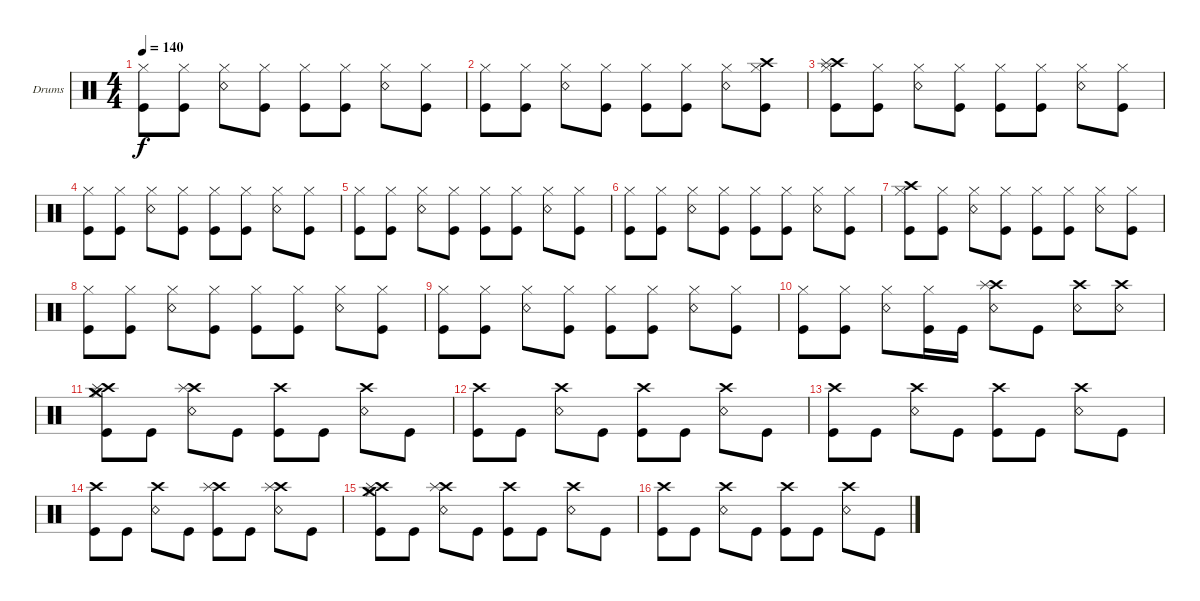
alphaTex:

\bracketExtendMode groupsimilarinstruments
\firstSystemTrackNameOrientation horizontal
\otherSystemsTrackNameOrientation horizontal
\track ("Da Kurlzz - Drums" "Drums") {instrument percussion}
\staff {score}
\articulation defaults
\ts (4 4)
\tempo 140
\clef neutral
\ks c
("Kick (hit)" "Hi-Hat (closed)").8{dy f} ("Kick (hit)" "Hi-Hat (closed)").8 ("Snare (rim shot)" "Hi-Hat (closed)").8 ("Kick (hit)" "Hi-Hat (closed)").8 ("Kick (hit)" "Hi-Hat (closed)").8 ("Kick (hit)" "Hi-Hat (closed)").8 ("Snare (rim shot)" "Hi-Hat (closed)").8 ("Kick (hit)" "Hi-Hat (closed)").8 |
("Kick (hit)" "Hi-Hat (closed)").8 ("Kick (hit)" "Hi-Hat (closed)").8 ("Snare (rim shot)" "Hi-Hat (closed)").8 ("Kick (hit)" "Hi-Hat (closed)").8 ("Kick (hit)" "Hi-Hat (closed)").8 ("Kick (hit)" "Hi-Hat (closed)").8 ("Snare (rim shot)" "Hi-Hat (closed)").8 ("Kick (hit)" "Hi-Hat (closed)" "Crash high (hit)").8 |
("Kick (hit)" "Hi-Hat (closed)" "Crash high (hit)" "Splash (hit)").8 ("Kick (hit)" "Hi-Hat (closed)").8 ("Snare (rim shot)" "Hi-Hat (closed)").8 ("Kick (hit)" "Hi-Hat (closed)").8 ("Kick (hit)" "Hi-Hat (closed)").8 ("Kick (hit)" "Hi-Hat (closed)").8 ("Snare (rim shot)" "Hi-Hat (closed)").8 ("Kick (hit)" "Hi-Hat (closed)").8 |
("Kick (hit)" "Hi-Hat (closed)").8 ("Kick (hit)" "Hi-Hat (closed)").8 ("Snare (rim shot)" "Hi-Hat (closed)").8 ("Kick (hit)" "Hi-Hat (closed)").8 ("Kick (hit)" "Hi-Hat (closed)").8 ("Kick (hit)" "Hi-Hat (closed)").8 ("Snare (rim shot)" "Hi-Hat (closed)").8 ("Kick (hit)" "Hi-Hat (closed)").8 |
("Kick (hit)" "Hi-Hat (closed)").8 ("Kick (hit)" "Hi-Hat (closed)").8 ("Snare (rim shot)" "Hi-Hat (closed)").8 ("Kick (hit)" "Hi-Hat (closed)").8 ("Kick (hit)" "Hi-Hat (closed)").8 ("Kick (hit)" "Hi-Hat (closed)").8 ("Snare (rim shot)" "Hi-Hat (closed)").8 ("Kick (hit)" "Hi-Hat (closed)").8 |
("Kick (hit)" "Hi-Hat (closed)").8 ("Kick (hit)" "Hi-Hat (closed)").8 ("Snare (rim shot)" "Hi-Hat (closed)").8 ("Kick (hit)" "Hi-Hat (closed)").8 ("Kick (hit)" "Hi-Hat (closed)").8 ("Kick (hit)" "Hi-Hat (closed)").8 ("Snare (rim shot)" "Hi-Hat (closed)").8 ("Kick (hit)" "Hi-Hat (closed)").8 |
("Kick (hit)" "Hi-Hat (closed)" "Crash high (hit)").8 ("Kick (hit)" "Hi-Hat (closed)").8 ("Snare (rim shot)" "Hi-Hat (closed)").8 ("Kick (hit)" "Hi-Hat (closed)").8 ("Kick (hit)" "Hi-Hat (closed)").8 ("Kick (hit)" "Hi-Hat (closed)").8 ("Snare (rim shot)" "Hi-Hat (closed)").8 ("Kick (hit)" "Hi-Hat (closed)").8 |
("Kick (hit)" "Hi-Hat (closed)").8 ("Kick (hit)" "Hi-Hat (closed)").8 ("Snare (rim shot)" "Hi-Hat (closed)").8 ("Kick (hit)" "Hi-Hat (closed)").8 ("Kick (hit)" "Hi-Hat (closed)").8 ("Kick (hit)" "Hi-Hat (closed)").8 ("Snare (rim shot)" "Hi-Hat (closed)").8 ("Kick (hit)" "Hi-Hat (closed)").8 |
("Kick (hit)" "Hi-Hat (closed)").8 ("Kick (hit)" "Hi-Hat (closed)").8 ("Snare (rim shot)" "Hi-Hat (closed)").8 ("Kick (hit)" "Hi-Hat (closed)").8 ("Kick (hit)" "Hi-Hat (closed)").8 ("Kick (hit)" "Hi-Hat (closed)").8 ("Snare (rim shot)" "Hi-Hat (closed)").8 ("Kick (hit)" "Hi-Hat (closed)").8 |
("Kick (hit)" "Hi-Hat (closed)").8 ("Kick (hit)" "Hi-Hat (closed)").8 ("Snare (rim shot)" "Hi-Hat (closed)").8 ("Kick (hit)" "Hi-Hat (closed)").16 "Kick (hit)".16 ("Snare (rim shot)" "Crash high (hit)" "Splash (hit)").8 "Kick (hit)".8 ("Snare (rim shot)" "Crash high (hit)").8 ("Snare (rim shot)" "Crash high (hit)").8 |
("Kick (hit)" "Crash high (hit)" "Crash medium (hit)" "Hi-Hat (closed)" "Splash (hit)").8 "Kick (hit)".8 ("Snare (rim shot)" "Crash high (hit)" "Splash (hit)").8 "Kick (hit)".8 ("Kick (hit)" "Crash high (hit)").8 "Kick (hit)".8 ("Snare (rim shot)" "Crash high (hit)").8 "Kick (hit)".8 |
("Kick (hit)" "Crash high (hit)").8 "Kick (hit)".8 ("Snare (rim shot)" "Crash high (hit)").8 "Kick (hit)".8 ("Kick (hit)" "Crash high (hit)").8 "Kick (hit)".8 ("Snare (rim shot)" "Crash high (hit)").8 "Kick (hit)".8 |
("Kick (hit)" "Crash high (hit)").8 "Kick (hit)".8 ("Snare (rim shot)" "Crash high (hit)").8 "Kick (hit)".8 ("Kick (hit)" "Crash high (hit)").8 "Kick (hit)".8 ("Snare (rim shot)" "Crash high (hit)").8 "Kick (hit)".8 |
("Kick (hit)" "Crash high (hit)").8 "Kick (hit)".8 ("Snare (rim shot)" "Crash high (hit)").8 "Kick (hit)".8 ("Kick (hit)" "Crash high (hit)" "Splash (hit)").8 "Kick (hit)".8 ("Snare (rim shot)" "Crash high (hit)" "Splash (hit)").8 "Kick (hit)".8 |
("Kick (hit)" "Crash high (hit)" "Crash medium (hit)" "Hi-Hat (closed)" "Splash (hit)").8 "Kick (hit)".8 ("Snare (rim shot)" "Crash high (hit)" "Splash (hit)").8 "Kick (hit)".8 ("Kick (hit)" "Crash high (hit)").8 "Kick (hit)".8 ("Snare (rim shot)" "Crash high (hit)").8 "Kick (hit)".8 |
("Kick (hit)" "Crash high (hit)").8 "Kick (hit)".8 ("Snare (rim shot)" "Crash high (hit)").8 "Kick (hit)".8 ("Kick (hit)" "Crash high (hit)").8 "Kick (hit)".8 ("Snare (rim shot)" "Crash high (hit)").8 "Kick (hit)".8
